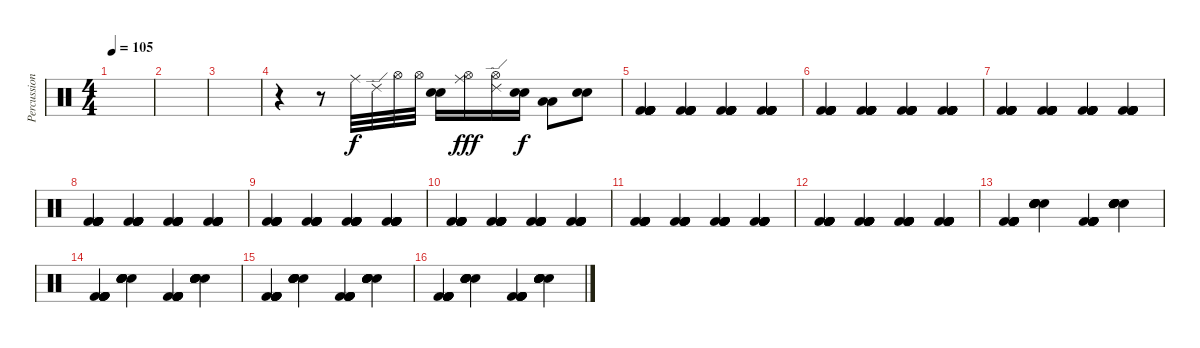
\track ("Percussion" "Percussion") {instrument percussion}
\staff {score}
\articulation defaults
\ts (4 4)
\tempo 105
\clef neutral
\ks c
|
|
|
r.4 r.8 "Ride (middle)".32 "Ride (edge) 2".32 "Hi-Hat (open)".32 "Hi-Hat (open)".32 ("Electric Snare (hit)" "Electric Snare (hit)").16 ("Ride (middle)" "Hi-Hat (open)").16{dy fff} ("Ride (edge) 2" "Hi-Hat (open)").16 ("Electric Snare (hit)" "Electric Snare (hit)").16{dy f} ("Low Tom (hit)" "Low Tom (hit)").8 ("Electric Snare (hit)" "Electric Snare (hit)").8 |
("Kick (hit) 2" "Kick (hit) 2" "Kick (hit) 2" "Kick (hit) 2" "Kick (hit) 2" "Kick (hit) 2").4 ("Kick (hit) 2" "Kick (hit) 2" "Kick (hit) 2" "Kick (hit) 2" "Kick (hit) 2" "Kick (hit) 2").4 ("Kick (hit) 2" "Kick (hit) 2" "Kick (hit) 2" "Kick (hit) 2" "Kick (hit) 2" "Kick (hit) 2").4 ("Kick (hit) 2" "Kick (hit) 2" "Kick (hit) 2" "Kick (hit) 2" "Kick (hit) 2" "Kick (hit) 2").4 |
("Kick (hit) 2" "Kick (hit) 2" "Kick (hit) 2" "Kick (hit) 2" "Kick (hit) 2" "Kick (hit) 2").4 ("Kick (hit) 2" "Kick (hit) 2" "Kick (hit) 2" "Kick (hit) 2" "Kick (hit) 2" "Kick (hit) 2").4 ("Kick (hit) 2" "Kick (hit) 2" "Kick (hit) 2" "Kick (hit) 2" "Kick (hit) 2" "Kick (hit) 2").4 ("Kick (hit) 2" "Kick (hit) 2" "Kick (hit) 2" "Kick (hit) 2" "Kick (hit) 2" "Kick (hit) 2").4 |
("Kick (hit) 2" "Kick (hit) 2" "Kick (hit) 2" "Kick (hit) 2" "Kick (hit) 2" "Kick (hit) 2").4 ("Kick (hit) 2" "Kick (hit) 2" "Kick (hit) 2" "Kick (hit) 2" "Kick (hit) 2" "Kick (hit) 2").4 ("Kick (hit) 2" "Kick (hit) 2" "Kick (hit) 2" "Kick (hit) 2" "Kick (hit) 2" "Kick (hit) 2").4 ("Kick (hit) 2" "Kick (hit) 2" "Kick (hit) 2" "Kick (hit) 2" "Kick (hit) 2" "Kick (hit) 2").4 |
("Kick (hit) 2" "Kick (hit) 2" "Kick (hit) 2" "Kick (hit) 2" "Kick (hit) 2" "Kick (hit) 2").4 ("Kick (hit) 2" "Kick (hit) 2" "Kick (hit) 2" "Kick (hit) 2" "Kick (hit) 2" "Kick (hit) 2").4 ("Kick (hit) 2" "Kick (hit) 2" "Kick (hit) 2" "Kick (hit) 2" "Kick (hit) 2" "Kick (hit) 2").4 ("Kick (hit) 2" "Kick (hit) 2" "Kick (hit) 2" "Kick (hit) 2" "Kick (hit) 2" "Kick (hit) 2").4 |
("Kick (hit) 2" "Kick (hit) 2" "Kick (hit) 2" "Kick (hit) 2" "Kick (hit) 2" "Kick (hit) 2").4 ("Kick (hit) 2" "Kick (hit) 2" "Kick (hit) 2" "Kick (hit) 2" "Kick (hit) 2" "Kick (hit) 2").4 ("Kick (hit) 2" "Kick (hit) 2" "Kick (hit) 2" "Kick (hit) 2" "Kick (hit) 2" "Kick (hit) 2").4 ("Kick (hit) 2" "Kick (hit) 2" "Kick (hit) 2" "Kick (hit) 2" "Kick (hit) 2" "Kick (hit) 2").4 |
("Kick (hit) 2" "Kick (hit) 2" "Kick (hit) 2" "Kick (hit) 2" "Kick (hit) 2" "Kick (hit) 2").4 ("Kick (hit) 2" "Kick (hit) 2" "Kick (hit) 2" "Kick (hit) 2" "Kick (hit) 2" "Kick (hit) 2").4 ("Kick (hit) 2" "Kick (hit) 2" "Kick (hit) 2" "Kick (hit) 2" "Kick (hit) 2" "Kick (hit) 2").4 ("Kick (hit) 2" "Kick (hit) 2" "Kick (hit) 2" "Kick (hit) 2" "Kick (hit) 2" "Kick (hit) 2").4 |
("Kick (hit) 2" "Kick (hit) 2" "Kick (hit) 2" "Kick (hit) 2" "Kick (hit) 2" "Kick (hit) 2").4 ("Kick (hit) 2" "Kick (hit) 2" "Kick (hit) 2" "Kick (hit) 2" "Kick (hit) 2" "Kick (hit) 2").4 ("Kick (hit) 2" "Kick (hit) 2" "Kick (hit) 2" "Kick (hit) 2" "Kick (hit) 2" "Kick (hit) 2").4 ("Kick (hit) 2" "Kick (hit) 2" "Kick (hit) 2" "Kick (hit) 2" "Kick (hit) 2" "Kick (hit) 2").4 |
("Kick (hit) 2" "Kick (hit) 2" "Kick (hit) 2" "Kick (hit) 2" "Kick (hit) 2" "Kick (hit) 2").4 ("Kick (hit) 2" "Kick (hit) 2" "Kick (hit) 2" "Kick (hit) 2" "Kick (hit) 2" "Kick (hit) 2").4 ("Kick (hit) 2" "Kick (hit) 2" "Kick (hit) 2" "Kick (hit) 2" "Kick (hit) 2" "Kick (hit) 2").4 ("Kick (hit) 2" "Kick (hit) 2" "Kick (hit) 2" "Kick (hit) 2" "Kick (hit) 2" "Kick (hit) 2").4 |
("Kick (hit) 2" "Kick (hit) 2" "Kick (hit) 2" "Kick (hit) 2" "Kick (hit) 2" "Kick (hit) 2").4 ("Electric Snare (hit)" "Electric Snare (hit)" "Electric Snare (hit)" "Electric Snare (hit)" "Electric Snare (hit)" "Electric Snare (hit)").4 ("Kick (hit) 2" "Kick (hit) 2" "Kick (hit) 2" "Kick (hit) 2" "Kick (hit) 2" "Kick (hit) 2").4 ("Electric Snare (hit)" "Electric Snare (hit)" "Electric Snare (hit)" "Electric Snare (hit)" "Electric Snare (hit)" "Electric Snare (hit)").4 |
("Kick (hit) 2" "Kick (hit) 2" "Kick (hit) 2" "Kick (hit) 2" "Kick (hit) 2" "Kick (hit) 2").4 ("Electric Snare (hit)" "Electric Snare (hit)" "Electric Snare (hit)" "Electric Snare (hit)" "Electric Snare (hit)" "Electric Snare (hit)").4 ("Kick (hit) 2" "Kick (hit) 2" "Kick (hit) 2" "Kick (hit) 2" "Kick (hit) 2" "Kick (hit) 2").4 ("Electric Snare (hit)" "Electric Snare (hit)" "Electric Snare (hit)" "Electric Snare (hit)" "Electric Snare (hit)" "Electric Snare (hit)").4 |
("Kick (hit) 2" "Kick (hit) 2" "Kick (hit) 2" "Kick (hit) 2" "Kick (hit) 2" "Kick (hit) 2").4 ("Electric Snare (hit)" "Electric Snare (hit)" "Electric Snare (hit)" "Electric Snare (hit)" "Electric Snare (hit)" "Electric Snare (hit)").4 ("Kick (hit) 2" "Kick (hit) 2" "Kick (hit) 2" "Kick (hit) 2" "Kick (hit) 2" "Kick (hit) 2").4 ("Electric Snare (hit)" "Electric Snare (hit)" "Electric Snare (hit)" "Electric Snare (hit)" "Electric Snare (hit)" "Electric Snare (hit)").4 |
("Kick (hit) 2" "Kick (hit) 2" "Kick (hit) 2" "Kick (hit) 2" "Kick (hit) 2" "Kick (hit) 2").4 ("Electric Snare (hit)" "Electric Snare (hit)" "Electric Snare (hit)" "Electric Snare (hit)" "Electric Snare (hit)" "Electric Snare (hit)").4 ("Kick (hit) 2" "Kick (hit) 2" "Kick (hit) 2" "Kick (hit) 2" "Kick (hit) 2" "Kick (hit) 2").4 ("Electric Snare (hit)" "Electric Snare (hit)" "Electric Snare (hit)" "Electric Snare (hit)" "Electric Snare (hit)" "Electric Snare (hit)").4
